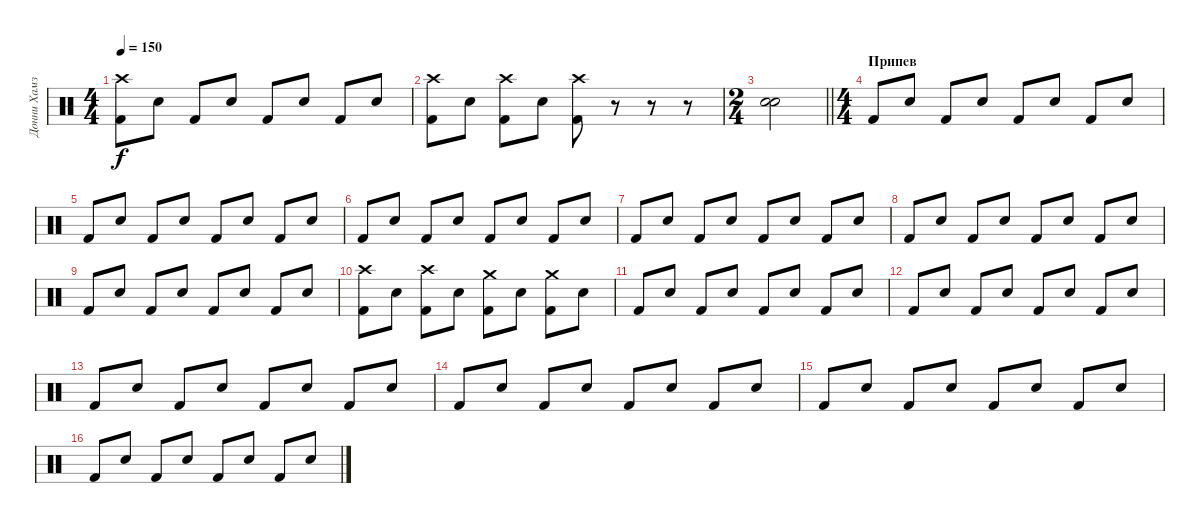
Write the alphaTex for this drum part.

\track ("Донни Хамзик" "Донни Хамз") {instrument percussion}
\staff {score}
\articulation defaults
\ts (4 4)
\tempo 150
\clef neutral
\ks c
("Crash high (hit)" "Kick (hit) 2").8{dy f} "Snare (hit) 2".8 "Kick (hit) 2".8 "Snare (hit) 2".8 "Kick (hit) 2".8 "Snare (hit) 2".8 "Kick (hit) 2".8 "Snare (hit) 2".8 |
("Crash high (hit)" "Kick (hit) 2").8 "Snare (hit) 2".8 ("Crash high (hit)" "Kick (hit) 2").8 "Snare (hit) 2".8 ("Crash high (hit)" "Kick (hit) 2").8 r.8 r.8 r.8 |
\ts (2 4)
\barLineRight lightlight
("Electric Snare (hit)" "Electric Snare (hit)").2 |
\ts (4 4)
\section ("" "Припев")
"Kick (hit) 2".8 "Snare (hit) 2".8 "Kick (hit) 2".8 "Snare (hit) 2".8 "Kick (hit) 2".8 "Snare (hit) 2".8 "Kick (hit) 2".8 "Snare (hit) 2".8 |
"Kick (hit) 2".8 "Snare (hit) 2".8 "Kick (hit) 2".8 "Snare (hit) 2".8 "Kick (hit) 2".8 "Snare (hit) 2".8 "Kick (hit) 2".8 "Snare (hit) 2".8 |
"Kick (hit) 2".8 "Snare (hit) 2".8 "Kick (hit) 2".8 "Snare (hit) 2".8 "Kick (hit) 2".8 "Snare (hit) 2".8 "Kick (hit) 2".8 "Snare (hit) 2".8 |
"Kick (hit) 2".8 "Snare (hit) 2".8 "Kick (hit) 2".8 "Snare (hit) 2".8 "Kick (hit) 2".8 "Snare (hit) 2".8 "Kick (hit) 2".8 "Snare (hit) 2".8 |
"Kick (hit) 2".8 "Snare (hit) 2".8 "Kick (hit) 2".8 "Snare (hit) 2".8 "Kick (hit) 2".8 "Snare (hit) 2".8 "Kick (hit) 2".8 "Snare (hit) 2".8 |
"Kick (hit) 2".8 "Snare (hit) 2".8 "Kick (hit) 2".8 "Snare (hit) 2".8 "Kick (hit) 2".8 "Snare (hit) 2".8 "Kick (hit) 2".8 "Snare (hit) 2".8 |
("Crash high (hit)" "Kick (hit) 2").8 "Snare (hit) 2".8 ("Crash high (hit)" "Kick (hit) 2").8 "Snare (hit) 2".8 ("Crash medium (hit)" "Kick (hit) 2").8 "Snare (hit) 2".8 ("Crash medium (hit)" "Kick (hit) 2").8 "Snare (hit) 2".8 |
"Kick (hit) 2".8 "Snare (hit) 2".8 "Kick (hit) 2".8 "Snare (hit) 2".8 "Kick (hit) 2".8 "Snare (hit) 2".8 "Kick (hit) 2".8 "Snare (hit) 2".8 |
"Kick (hit) 2".8 "Snare (hit) 2".8 "Kick (hit) 2".8 "Snare (hit) 2".8 "Kick (hit) 2".8 "Snare (hit) 2".8 "Kick (hit) 2".8 "Snare (hit) 2".8 |
"Kick (hit) 2".8 "Snare (hit) 2".8 "Kick (hit) 2".8 "Snare (hit) 2".8 "Kick (hit) 2".8 "Snare (hit) 2".8 "Kick (hit) 2".8 "Snare (hit) 2".8 |
"Kick (hit) 2".8 "Snare (hit) 2".8 "Kick (hit) 2".8 "Snare (hit) 2".8 "Kick (hit) 2".8 "Snare (hit) 2".8 "Kick (hit) 2".8 "Snare (hit) 2".8 |
"Kick (hit) 2".8 "Snare (hit) 2".8 "Kick (hit) 2".8 "Snare (hit) 2".8 "Kick (hit) 2".8 "Snare (hit) 2".8 "Kick (hit) 2".8 "Snare (hit) 2".8 |
"Kick (hit) 2".8 "Snare (hit) 2".8 "Kick (hit) 2".8 "Snare (hit) 2".8 "Kick (hit) 2".8 "Snare (hit) 2".8 "Kick (hit) 2".8 "Snare (hit) 2".8
